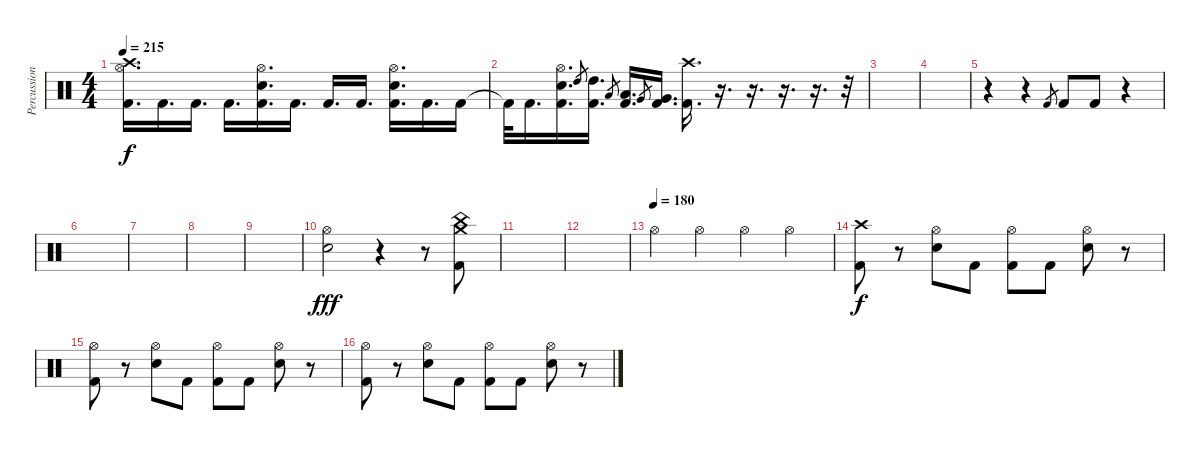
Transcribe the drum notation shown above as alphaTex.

\track ("Percussion" "Percussion") {instrument percussion}
\staff {score}
\articulation defaults
\ts (4 4)
\tempo 215
\clef neutral
\ks c
("Crash high (hit)" "Hi-Hat (open)" "Kick (hit) 2").16{d dy f} "Kick (hit) 2".16{d} "Kick (hit) 2".16{d} "Kick (hit) 2".16{d} ("Hi-Hat (open)" "Electric Snare (hit)" "Kick (hit) 2").16{d} "Kick (hit) 2".16{d} "Kick (hit) 2".16{d} "Kick (hit) 2".16{d} ("Hi-Hat (open)" "Electric Snare (hit)" "Kick (hit) 2").16{d} "Kick (hit) 2".16{d} "Kick (hit) 2".16 |
"Kick (hit) 2"{t}.32 "Kick (hit) 2".16{d} ("Hi-Hat (open)" "Electric Snare (hit)" "Kick (hit) 2").16{d} "High Tom (hit)".8{gr} ("High Tom (hit)" "Kick (hit) 2").16{d} "Low Tom (hit)".8{gr} ("Low Tom (hit)" "Kick (hit) 2").16{d} "Very Low Tom (hit)".8{gr} ("Very Low Tom (hit)" "Kick (hit) 2").16{d} ("Crash high (hit)" "Kick (hit) 2").16{d} r.16{d} r.16{d} r.16{d} r.16{d} r.32 |
|
|
r.4 r.4 "Kick (hit) 2".8{gr} "Kick (hit) 2".8 "Kick (hit) 2".8 r.4 |
|
|
|
|
("Hi-Hat (open)" "Electric Snare (hit)").2{dy fff} r.4 r.8 ("China (hit)" "Crash medium (hit)" "Kick (hit) 2").8 |
|
|
\tempo (180)
"Hi-Hat (open)".4 "Hi-Hat (open)".4 "Hi-Hat (open)".4 "Hi-Hat (open)".4 |
("Crash high (hit)" "Kick (hit) 2").8{dy f} r.8 ("Hi-Hat (open)" "Electric Snare (hit)").8 "Kick (hit) 2".8 ("Hi-Hat (open)" "Kick (hit) 2").8 "Kick (hit) 2".8 ("Hi-Hat (open)" "Electric Snare (hit)").8 r.8 |
("Hi-Hat (open)" "Kick (hit) 2").8 r.8 ("Hi-Hat (open)" "Electric Snare (hit)").8 "Kick (hit) 2".8 ("Hi-Hat (open)" "Kick (hit) 2").8 "Kick (hit) 2".8 ("Hi-Hat (open)" "Electric Snare (hit)").8 r.8 |
("Hi-Hat (open)" "Kick (hit) 2").8 r.8 ("Hi-Hat (open)" "Electric Snare (hit)").8 "Kick (hit) 2".8 ("Hi-Hat (open)" "Kick (hit) 2").8 "Kick (hit) 2".8 ("Hi-Hat (open)" "Electric Snare (hit)").8 r.8
